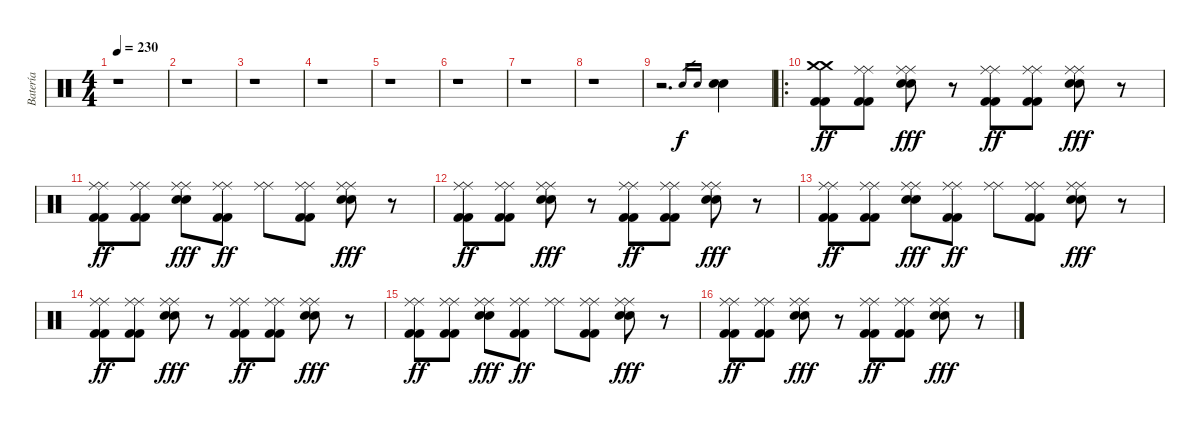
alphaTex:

\track ("Batería" "Batería") {instrument percussion}
\staff {score}
\articulation defaults
\ts (4 4)
\tempo 230
\clef neutral
\ks c
r.1{dy f} |
r.1 |
r.1 |
r.1 |
r.1 |
r.1 |
r.1 |
r.1 |
r.2{d} "Electric Snare (hit)".16{gr} "Electric Snare (hit)".16{gr} ("Electric Snare (hit)" "Electric Snare (hit)").4 |
\ro
("Crash medium (hit)" "Crash medium (hit)" "Kick (hit) 2" "Kick (hit) 2").8{dy ff} ("Ride (middle)" "Ride (middle)" "Kick (hit) 2" "Kick (hit) 2").8 ("Ride (middle)" "Ride (middle)" "Electric Snare (hit)" "Electric Snare (hit)").8{dy fff} r.8 ("Ride (middle)" "Ride (middle)" "Kick (hit) 2" "Kick (hit) 2").8{dy ff} ("Ride (middle)" "Ride (middle)" "Kick (hit) 2" "Kick (hit) 2").8 ("Ride (middle)" "Ride (middle)" "Electric Snare (hit)" "Electric Snare (hit)").8{dy fff} r.8 |
("Ride (middle)" "Ride (middle)" "Kick (hit) 2" "Kick (hit) 2").8{dy ff} ("Ride (middle)" "Ride (middle)" "Kick (hit) 2" "Kick (hit) 2").8 ("Ride (middle)" "Ride (middle)" "Electric Snare (hit)" "Electric Snare (hit)").8{dy fff} ("Ride (middle)" "Ride (middle)" "Kick (hit) 2" "Kick (hit) 2").8{dy ff} ("Ride (middle)" "Ride (middle)").8 ("Ride (middle)" "Ride (middle)" "Kick (hit) 2" "Kick (hit) 2").8 ("Ride (middle)" "Ride (middle)" "Electric Snare (hit)" "Electric Snare (hit)").8{dy fff} r.8 |
("Ride (middle)" "Ride (middle)" "Kick (hit) 2" "Kick (hit) 2").8{dy ff} ("Ride (middle)" "Ride (middle)" "Kick (hit) 2" "Kick (hit) 2").8 ("Ride (middle)" "Ride (middle)" "Electric Snare (hit)" "Electric Snare (hit)").8{dy fff} r.8 ("Ride (middle)" "Ride (middle)" "Kick (hit) 2" "Kick (hit) 2").8{dy ff} ("Ride (middle)" "Ride (middle)" "Kick (hit) 2" "Kick (hit) 2").8 ("Ride (middle)" "Ride (middle)" "Electric Snare (hit)" "Electric Snare (hit)").8{dy fff} r.8 |
("Ride (middle)" "Ride (middle)" "Kick (hit) 2" "Kick (hit) 2").8{dy ff} ("Ride (middle)" "Ride (middle)" "Kick (hit) 2" "Kick (hit) 2").8 ("Ride (middle)" "Ride (middle)" "Electric Snare (hit)" "Electric Snare (hit)").8{dy fff} ("Ride (middle)" "Ride (middle)" "Kick (hit) 2" "Kick (hit) 2").8{dy ff} ("Ride (middle)" "Ride (middle)").8 ("Ride (middle)" "Ride (middle)" "Kick (hit) 2" "Kick (hit) 2").8 ("Ride (middle)" "Ride (middle)" "Electric Snare (hit)" "Electric Snare (hit)").8{dy fff} r.8 |
("Ride (middle)" "Ride (middle)" "Kick (hit) 2" "Kick (hit) 2").8{dy ff} ("Ride (middle)" "Ride (middle)" "Kick (hit) 2" "Kick (hit) 2").8 ("Ride (middle)" "Ride (middle)" "Electric Snare (hit)" "Electric Snare (hit)").8{dy fff} r.8 ("Ride (middle)" "Ride (middle)" "Kick (hit) 2" "Kick (hit) 2").8{dy ff} ("Ride (middle)" "Ride (middle)" "Kick (hit) 2" "Kick (hit) 2").8 ("Ride (middle)" "Ride (middle)" "Electric Snare (hit)" "Electric Snare (hit)").8{dy fff} r.8 |
("Ride (middle)" "Ride (middle)" "Kick (hit) 2" "Kick (hit) 2").8{dy ff} ("Ride (middle)" "Ride (middle)" "Kick (hit) 2" "Kick (hit) 2").8 ("Ride (middle)" "Ride (middle)" "Electric Snare (hit)" "Electric Snare (hit)").8{dy fff} ("Ride (middle)" "Ride (middle)" "Kick (hit) 2" "Kick (hit) 2").8{dy ff} ("Ride (middle)" "Ride (middle)").8 ("Ride (middle)" "Ride (middle)" "Kick (hit) 2" "Kick (hit) 2").8 ("Ride (middle)" "Ride (middle)" "Electric Snare (hit)" "Electric Snare (hit)").8{dy fff} r.8 |
("Ride (middle)" "Ride (middle)" "Kick (hit) 2" "Kick (hit) 2").8{dy ff} ("Ride (middle)" "Ride (middle)" "Kick (hit) 2" "Kick (hit) 2").8 ("Ride (middle)" "Ride (middle)" "Electric Snare (hit)" "Electric Snare (hit)").8{dy fff} r.8 ("Ride (middle)" "Ride (middle)" "Kick (hit) 2" "Kick (hit) 2").8{dy ff} ("Ride (middle)" "Ride (middle)" "Kick (hit) 2" "Kick (hit) 2").8 ("Ride (middle)" "Ride (middle)" "Electric Snare (hit)" "Electric Snare (hit)").8{dy fff} r.8
